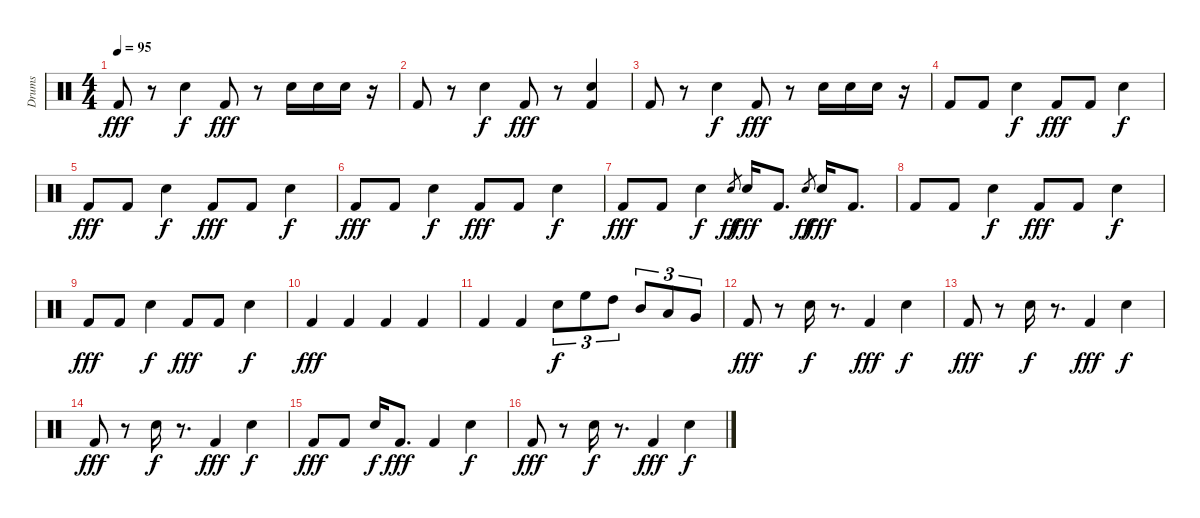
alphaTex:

\bracketExtendMode groupsimilarinstruments
\otherSystemsTrackNameOrientation horizontal
\track ("Drumkit" "Drums") {instrument percussion}
\staff {score}
\articulation defaults
\ts (4 4)
\tempo 95
\clef neutral
\ks c "Kick (hit) 2".8{dy fff}
r.8 "Snare (hit) 2".4{dy f} "Kick (hit) 2".8{dy fff} r.8 "Snare (hit) 2".16 "Snare (hit) 2".16 "Snare (hit) 2".16 r.16 |
"Kick (hit) 2".8 r.8 "Snare (hit) 2".4{dy f} "Kick (hit) 2".8{dy fff} r.8 ("Kick (hit) 2" "Snare (hit) 2").4 |
"Kick (hit) 2".8 r.8 "Snare (hit) 2".4{dy f} "Kick (hit) 2".8{dy fff} r.8 "Snare (hit) 2".16 "Snare (hit) 2".16 "Snare (hit) 2".16 r.16 |
"Kick (hit) 2".8 "Kick (hit) 2".8 "Snare (hit) 2".4{dy f} "Kick (hit) 2".8{dy fff} "Kick (hit) 2".8 "Snare (hit) 2".4{dy f} |
"Kick (hit) 2".8{dy fff} "Kick (hit) 2".8 "Snare (hit) 2".4{dy f} "Kick (hit) 2".8{dy fff} "Kick (hit) 2".8 "Snare (hit) 2".4{dy f} |
"Kick (hit) 2".8{dy fff} "Kick (hit) 2".8 "Snare (hit) 2".4{dy f} "Kick (hit) 2".8{dy fff} "Kick (hit) 2".8 "Snare (hit) 2".4{dy f} |
"Kick (hit) 2".8{dy fff} "Kick (hit) 2".8 "Snare (hit) 2".4{dy f} "Snare (hit) 2".8{gr dy ff} "Snare (hit) 2".16{dy fff} "Kick (hit) 2".8{d} "Snare (hit) 2".8{gr dy ff} "Snare (hit) 2".16{dy fff} "Kick (hit) 2".8{d} |
"Kick (hit) 2".8 "Kick (hit) 2".8 "Snare (hit) 2".4{dy f} "Kick (hit) 2".8{dy fff} "Kick (hit) 2".8 "Snare (hit) 2".4{dy f} |
"Kick (hit) 2".8{dy fff} "Kick (hit) 2".8 "Snare (hit) 2".4{dy f} "Kick (hit) 2".8{dy fff} "Kick (hit) 2".8 "Snare (hit) 2".4{dy f} |
"Kick (hit) 2".4{dy fff} "Kick (hit) 2".4 "Kick (hit) 2".4 "Kick (hit) 2".4 |
"Kick (hit) 2".4 "Kick (hit) 2".4 "Snare (hit) 2".8{tu (3 2) dy f} "High Floor Tom (hit)".8{tu (3 2)} "High Tom (hit)".8{tu (3 2)} "Mid Tom (hit)".8{tu (3 2)} "Low Tom (hit)".8{tu (3 2)} "Very Low Tom (hit)".8{tu (3 2)} |
"Kick (hit) 2".8{dy fff} r.8 "Snare (hit) 2".16{dy f} r.8{d} "Kick (hit) 2".4{dy fff} "Snare (hit) 2".4{dy f} |
"Kick (hit) 2".8{dy fff} r.8 "Snare (hit) 2".16{dy f} r.8{d} "Kick (hit) 2".4{dy fff} "Snare (hit) 2".4{dy f} |
"Kick (hit) 2".8{dy fff} r.8 "Snare (hit) 2".16{dy f} r.8{d} "Kick (hit) 2".4{dy fff} "Snare (hit) 2".4{dy f} |
"Kick (hit) 2".8{dy fff} "Kick (hit) 2".8 "Snare (hit) 2".16{dy f} "Kick (hit) 2".8{d dy fff} "Kick (hit) 2".4 "Snare (hit) 2".4{dy f} |
"Kick (hit) 2".8{dy fff} r.8 "Snare (hit) 2".16{dy f} r.8{d} "Kick (hit) 2".4{dy fff} "Snare (hit) 2".4{dy f}
